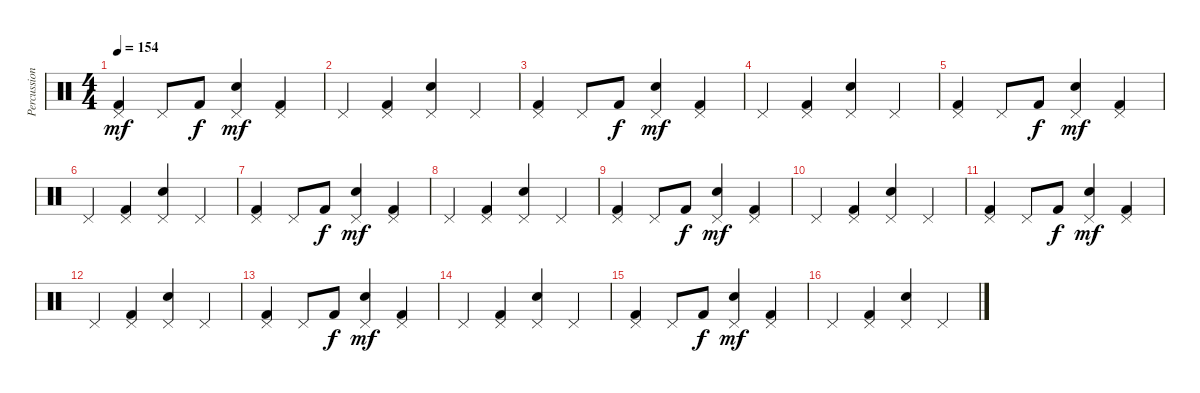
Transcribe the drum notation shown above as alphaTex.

\track ("Percussion" "Percussion") {instrument percussion}
\staff {score}
\articulation defaults
\ts (4 4)
\tempo 154
\clef neutral
\ks c
("Kick (hit) 2" "Pedal Hi-Hat (hit)").4{dy mf volume 5} "Pedal Hi-Hat (hit)".8 "Kick (hit) 2".8{dy f} ("Snare (hit) 2" "Pedal Hi-Hat (hit)").4{dy mf} ("Kick (hit) 2" "Pedal Hi-Hat (hit)").4 |
"Pedal Hi-Hat (hit)".4 ("Kick (hit) 2" "Pedal Hi-Hat (hit)").4 ("Snare (hit) 2" "Pedal Hi-Hat (hit)").4 "Pedal Hi-Hat (hit)".4 |
("Kick (hit) 2" "Pedal Hi-Hat (hit)").4 "Pedal Hi-Hat (hit)".8 "Kick (hit) 2".8{dy f} ("Snare (hit) 2" "Pedal Hi-Hat (hit)").4{dy mf} ("Kick (hit) 2" "Pedal Hi-Hat (hit)").4 |
"Pedal Hi-Hat (hit)".4 ("Kick (hit) 2" "Pedal Hi-Hat (hit)").4 ("Snare (hit) 2" "Pedal Hi-Hat (hit)").4 "Pedal Hi-Hat (hit)".4 |
("Kick (hit) 2" "Pedal Hi-Hat (hit)").4 "Pedal Hi-Hat (hit)".8 "Kick (hit) 2".8{dy f} ("Snare (hit) 2" "Pedal Hi-Hat (hit)").4{dy mf} ("Kick (hit) 2" "Pedal Hi-Hat (hit)").4 |
"Pedal Hi-Hat (hit)".4 ("Kick (hit) 2" "Pedal Hi-Hat (hit)").4 ("Snare (hit) 2" "Pedal Hi-Hat (hit)").4 "Pedal Hi-Hat (hit)".4 |
("Kick (hit) 2" "Pedal Hi-Hat (hit)").4 "Pedal Hi-Hat (hit)".8 "Kick (hit) 2".8{dy f} ("Snare (hit) 2" "Pedal Hi-Hat (hit)").4{dy mf} ("Kick (hit) 2" "Pedal Hi-Hat (hit)").4 |
"Pedal Hi-Hat (hit)".4 ("Kick (hit) 2" "Pedal Hi-Hat (hit)").4 ("Snare (hit) 2" "Pedal Hi-Hat (hit)").4 "Pedal Hi-Hat (hit)".4 |
("Kick (hit) 2" "Pedal Hi-Hat (hit)").4 "Pedal Hi-Hat (hit)".8 "Kick (hit) 2".8{dy f} ("Snare (hit) 2" "Pedal Hi-Hat (hit)").4{dy mf} ("Kick (hit) 2" "Pedal Hi-Hat (hit)").4 |
"Pedal Hi-Hat (hit)".4 ("Kick (hit) 2" "Pedal Hi-Hat (hit)").4 ("Snare (hit) 2" "Pedal Hi-Hat (hit)").4 "Pedal Hi-Hat (hit)".4 |
("Kick (hit) 2" "Pedal Hi-Hat (hit)").4 "Pedal Hi-Hat (hit)".8 "Kick (hit) 2".8{dy f} ("Snare (hit) 2" "Pedal Hi-Hat (hit)").4{dy mf} ("Kick (hit) 2" "Pedal Hi-Hat (hit)").4 |
"Pedal Hi-Hat (hit)".4 ("Kick (hit) 2" "Pedal Hi-Hat (hit)").4 ("Snare (hit) 2" "Pedal Hi-Hat (hit)").4 "Pedal Hi-Hat (hit)".4 |
("Kick (hit) 2" "Pedal Hi-Hat (hit)").4 "Pedal Hi-Hat (hit)".8 "Kick (hit) 2".8{dy f} ("Snare (hit) 2" "Pedal Hi-Hat (hit)").4{dy mf} ("Kick (hit) 2" "Pedal Hi-Hat (hit)").4 |
"Pedal Hi-Hat (hit)".4 ("Kick (hit) 2" "Pedal Hi-Hat (hit)").4 ("Snare (hit) 2" "Pedal Hi-Hat (hit)").4 "Pedal Hi-Hat (hit)".4 |
("Kick (hit) 2" "Pedal Hi-Hat (hit)").4 "Pedal Hi-Hat (hit)".8 "Kick (hit) 2".8{dy f} ("Snare (hit) 2" "Pedal Hi-Hat (hit)").4{dy mf} ("Kick (hit) 2" "Pedal Hi-Hat (hit)").4 |
"Pedal Hi-Hat (hit)".4 ("Kick (hit) 2" "Pedal Hi-Hat (hit)").4 ("Snare (hit) 2" "Pedal Hi-Hat (hit)").4 "Pedal Hi-Hat (hit)".4
